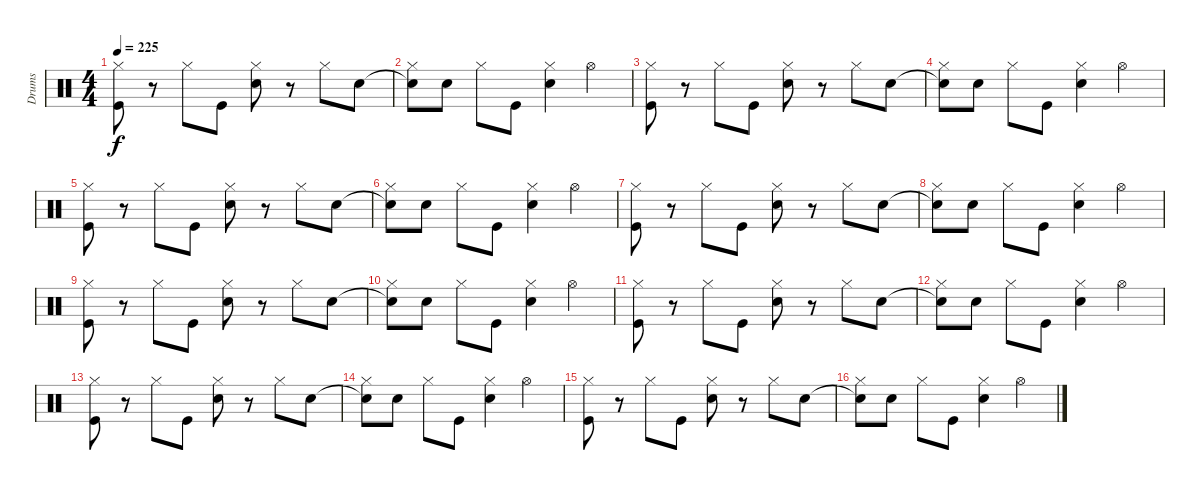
\track ("Drums" "Drums") {instrument percussion}
\staff {score}
\articulation defaults
\ts (4 4)
\tempo 225
\clef neutral
\ks c
("Kick (hit)" "Hi-Hat (closed)").8{dy f} r.8 "Hi-Hat (closed)".8 "Kick (hit)".8 ("Electric Snare (hit)" "Hi-Hat (closed)").8 r.8 "Hi-Hat (closed)".8 "Electric Snare (hit)".8 |
("Electric Snare (hit)"{t} "Hi-Hat (closed)").8 "Electric Snare (hit)".8 "Hi-Hat (closed)".8 "Kick (hit)".8 ("Electric Snare (hit)" "Hi-Hat (closed)").4 "Hi-Hat (open)".4 |
("Kick (hit)" "Hi-Hat (closed)").8 r.8 "Hi-Hat (closed)".8 "Kick (hit)".8 ("Electric Snare (hit)" "Hi-Hat (closed)").8 r.8 "Hi-Hat (closed)".8 "Electric Snare (hit)".8 |
("Electric Snare (hit)"{t} "Hi-Hat (closed)").8 "Electric Snare (hit)".8 "Hi-Hat (closed)".8 "Kick (hit)".8 ("Electric Snare (hit)" "Hi-Hat (closed)").4 "Hi-Hat (open)".4 |
("Kick (hit)" "Hi-Hat (closed)").8 r.8 "Hi-Hat (closed)".8 "Kick (hit)".8 ("Electric Snare (hit)" "Hi-Hat (closed)").8 r.8 "Hi-Hat (closed)".8 "Electric Snare (hit)".8 |
("Electric Snare (hit)"{t} "Hi-Hat (closed)").8 "Electric Snare (hit)".8 "Hi-Hat (closed)".8 "Kick (hit)".8 ("Electric Snare (hit)" "Hi-Hat (closed)").4 "Hi-Hat (open)".4 |
("Kick (hit)" "Hi-Hat (closed)").8 r.8 "Hi-Hat (closed)".8 "Kick (hit)".8 ("Electric Snare (hit)" "Hi-Hat (closed)").8 r.8 "Hi-Hat (closed)".8 "Electric Snare (hit)".8 |
("Electric Snare (hit)"{t} "Hi-Hat (closed)").8 "Electric Snare (hit)".8 "Hi-Hat (closed)".8 "Kick (hit)".8 ("Electric Snare (hit)" "Hi-Hat (closed)").4 "Hi-Hat (open)".4 |
("Kick (hit)" "Hi-Hat (closed)").8 r.8 "Hi-Hat (closed)".8 "Kick (hit)".8 ("Electric Snare (hit)" "Hi-Hat (closed)").8 r.8 "Hi-Hat (closed)".8 "Electric Snare (hit)".8 |
("Electric Snare (hit)"{t} "Hi-Hat (closed)").8 "Electric Snare (hit)".8 "Hi-Hat (closed)".8 "Kick (hit)".8 ("Electric Snare (hit)" "Hi-Hat (closed)").4 "Hi-Hat (open)".4 |
("Kick (hit)" "Hi-Hat (closed)").8 r.8 "Hi-Hat (closed)".8 "Kick (hit)".8 ("Electric Snare (hit)" "Hi-Hat (closed)").8 r.8 "Hi-Hat (closed)".8 "Electric Snare (hit)".8 |
("Electric Snare (hit)"{t} "Hi-Hat (closed)").8 "Electric Snare (hit)".8 "Hi-Hat (closed)".8 "Kick (hit)".8 ("Electric Snare (hit)" "Hi-Hat (closed)").4 "Hi-Hat (open)".4 |
("Kick (hit)" "Hi-Hat (closed)").8 r.8 "Hi-Hat (closed)".8 "Kick (hit)".8 ("Electric Snare (hit)" "Hi-Hat (closed)").8 r.8 "Hi-Hat (closed)".8 "Electric Snare (hit)".8 |
("Electric Snare (hit)"{t} "Hi-Hat (closed)").8 "Electric Snare (hit)".8 "Hi-Hat (closed)".8 "Kick (hit)".8 ("Electric Snare (hit)" "Hi-Hat (closed)").4 "Hi-Hat (open)".4 |
("Kick (hit)" "Hi-Hat (closed)").8 r.8 "Hi-Hat (closed)".8 "Kick (hit)".8 ("Electric Snare (hit)" "Hi-Hat (closed)").8 r.8 "Hi-Hat (closed)".8 "Electric Snare (hit)".8 |
("Electric Snare (hit)"{t} "Hi-Hat (closed)").8 "Electric Snare (hit)".8 "Hi-Hat (closed)".8 "Kick (hit)".8 ("Electric Snare (hit)" "Hi-Hat (closed)").4 "Hi-Hat (open)".4
